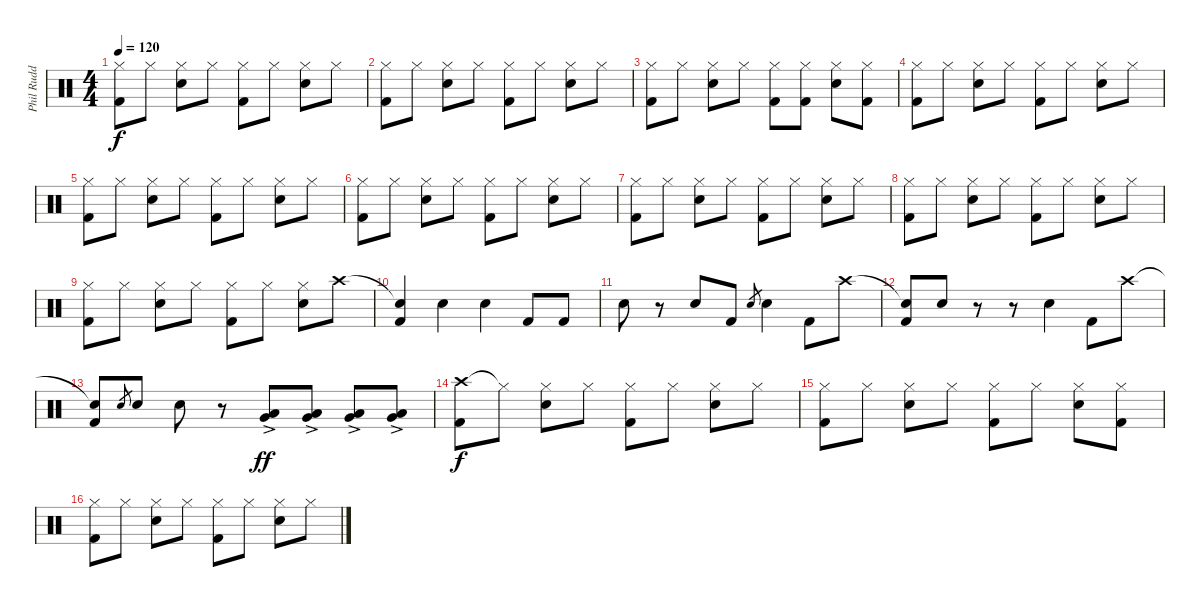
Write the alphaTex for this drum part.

\track ("Phil Rudd" "Phil Rudd") {instrument percussion}
\staff {score}
\articulation defaults
\ts (4 4)
\tempo 120
\clef neutral
\ks c
("Hi-Hat (closed)" "Kick (hit) 2").8{dy f} "Hi-Hat (closed)".8 ("Hi-Hat (closed)" "Snare (hit) 2").8 "Hi-Hat (closed)".8 ("Hi-Hat (closed)" "Kick (hit) 2").8 "Hi-Hat (closed)".8 ("Hi-Hat (closed)" "Snare (hit) 2").8 "Hi-Hat (closed)".8 |
("Hi-Hat (closed)" "Kick (hit) 2").8 "Hi-Hat (closed)".8 ("Hi-Hat (closed)" "Snare (hit) 2").8 "Hi-Hat (closed)".8 ("Hi-Hat (closed)" "Kick (hit) 2").8 "Hi-Hat (closed)".8 ("Hi-Hat (closed)" "Snare (hit) 2").8 "Hi-Hat (closed)".8 |
("Hi-Hat (closed)" "Kick (hit) 2").8 "Hi-Hat (closed)".8 ("Hi-Hat (closed)" "Snare (hit) 2").8 "Hi-Hat (closed)".8 ("Hi-Hat (closed)" "Kick (hit) 2").8 ("Hi-Hat (closed)" "Kick (hit) 2").8 ("Hi-Hat (closed)" "Snare (hit) 2").8 ("Hi-Hat (closed)" "Kick (hit) 2").8 |
("Hi-Hat (closed)" "Kick (hit) 2").8 "Hi-Hat (closed)".8 ("Hi-Hat (closed)" "Snare (hit) 2").8 "Hi-Hat (closed)".8 ("Hi-Hat (closed)" "Kick (hit) 2").8 "Hi-Hat (closed)".8 ("Hi-Hat (closed)" "Snare (hit) 2").8 "Hi-Hat (closed)".8 |
("Hi-Hat (closed)" "Kick (hit) 2").8 "Hi-Hat (closed)".8 ("Hi-Hat (closed)" "Snare (hit) 2").8 "Hi-Hat (closed)".8 ("Hi-Hat (closed)" "Kick (hit) 2").8 "Hi-Hat (closed)".8 ("Hi-Hat (closed)" "Snare (hit) 2").8 "Hi-Hat (closed)".8 |
("Hi-Hat (closed)" "Kick (hit) 2").8 "Hi-Hat (closed)".8 ("Hi-Hat (closed)" "Snare (hit) 2").8 "Hi-Hat (closed)".8 ("Hi-Hat (closed)" "Kick (hit) 2").8 "Hi-Hat (closed)".8 ("Hi-Hat (closed)" "Snare (hit) 2").8 "Hi-Hat (closed)".8 |
("Hi-Hat (closed)" "Kick (hit) 2").8 "Hi-Hat (closed)".8 ("Hi-Hat (closed)" "Snare (hit) 2").8 "Hi-Hat (closed)".8 ("Hi-Hat (closed)" "Kick (hit) 2").8 "Hi-Hat (closed)".8 ("Hi-Hat (closed)" "Snare (hit) 2").8 "Hi-Hat (closed)".8 |
("Hi-Hat (closed)" "Kick (hit) 2").8 "Hi-Hat (closed)".8 ("Hi-Hat (closed)" "Snare (hit) 2").8 "Hi-Hat (closed)".8 ("Hi-Hat (closed)" "Kick (hit) 2").8 "Hi-Hat (closed)".8 ("Hi-Hat (closed)" "Snare (hit) 2").8 "Hi-Hat (closed)".8 |
("Hi-Hat (closed)" "Kick (hit) 2").8 "Hi-Hat (closed)".8 ("Hi-Hat (closed)" "Snare (hit) 2").8 "Hi-Hat (closed)".8 ("Hi-Hat (closed)" "Kick (hit) 2").8 "Hi-Hat (closed)".8 ("Hi-Hat (closed)" "Snare (hit) 2").8 "Crash high (hit)".8 |
("Snare (hit)"{t} "Kick (hit) 2").4 "Snare (hit) 2".4 "Snare (hit) 2".4 "Kick (hit) 2".8 "Kick (hit) 2".8 |
"Snare (hit) 2".8 r.8 "Snare (hit) 2".8 "Kick (hit) 2".8 "Snare (hit) 2".8{gr} "Snare (hit) 2".4 "Kick (hit) 2".8 "Crash high (hit)".8 |
("Snare (hit)"{t} "Kick (hit) 2").8 "Snare (hit) 2".8 r.8 r.8 "Snare (hit) 2".4 "Kick (hit) 2".8 "Crash high (hit)".8 |
("Snare (hit)"{t} "Kick (hit) 2").8 "Snare (hit) 2".8{gr} "Snare (hit) 2".8 "Snare (hit) 2".8 r.8 ("Low Tom (hit)"{ac} "Very Low Tom (hit)"{ac}).8{dy ff balance 16} ("Low Tom (hit)"{ac} "Very Low Tom (hit)"{ac}).8{balance 10} ("Low Tom (hit)"{ac} "Very Low Tom (hit)"{ac}).8{balance 5} ("Low Tom (hit)"{ac} "Very Low Tom (hit)"{ac}).8{balance 0} |
("Crash high (hit)" "Kick (hit) 2").8{dy f} "Hi-Hat (closed)"{t}.8 ("Hi-Hat (closed)" "Snare (hit) 2").8 "Hi-Hat (closed)".8 ("Hi-Hat (closed)" "Kick (hit) 2").8 "Hi-Hat (closed)".8 ("Hi-Hat (closed)" "Snare (hit) 2").8 "Hi-Hat (closed)".8 |
("Hi-Hat (closed)" "Kick (hit) 2").8 "Hi-Hat (closed)".8 ("Hi-Hat (closed)" "Snare (hit) 2").8 "Hi-Hat (closed)".8 ("Hi-Hat (closed)" "Kick (hit) 2").8 "Hi-Hat (closed)".8 ("Hi-Hat (closed)" "Snare (hit) 2").8 ("Hi-Hat (closed)" "Kick (hit) 2").8 |
("Hi-Hat (closed)" "Kick (hit) 2").8 "Hi-Hat (closed)".8 ("Hi-Hat (closed)" "Snare (hit) 2").8 "Hi-Hat (closed)".8 ("Hi-Hat (closed)" "Kick (hit) 2").8 "Hi-Hat (closed)".8 ("Hi-Hat (closed)" "Snare (hit) 2").8 "Hi-Hat (closed)".8
